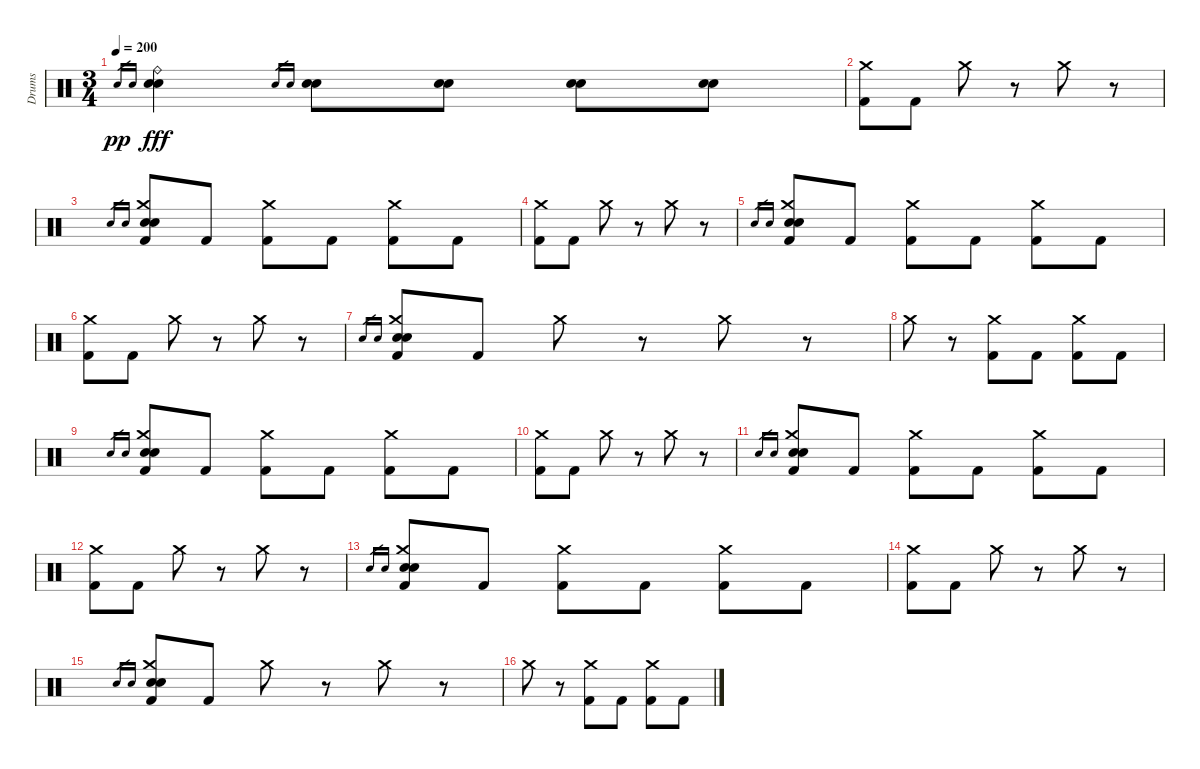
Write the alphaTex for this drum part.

\track ("Drums" "Drums") {instrument percussion}
\staff {score}
\articulation defaults
\ts (3 4)
\tempo 200
\clef neutral
\ks c "Electric Snare (hit)".16{gr dy pp} "Snare (hit) 2".16{gr}
("Ride (bell)" "Electric Snare (hit)" "Snare (hit) 2").4{dy fff} "Electric Snare (hit)".16{gr} "Snare (hit) 2".16{gr} ("Electric Snare (hit)" "Snare (hit) 2").8 ("Electric Snare (hit)" "Snare (hit) 2").8 ("Electric Snare (hit)" "Snare (hit) 2").8 ("Electric Snare (hit)" "Snare (hit) 2").8 |
("Crash medium (hit)" "Kick (hit) 2").8 "Kick (hit) 2".8 "Crash medium (hit)".8 r.8 "Crash medium (hit)".8 r.8 |
"Electric Snare (hit)".16{gr} "Snare (hit) 2".16{gr} ("Crash medium (hit)" "Electric Snare (hit)" "Snare (hit) 2" "Kick (hit) 2").8 "Kick (hit) 2".8 ("Crash medium (hit)" "Kick (hit) 2").8 "Kick (hit) 2".8 ("Crash medium (hit)" "Kick (hit) 2").8 "Kick (hit) 2".8 |
("Crash medium (hit)" "Kick (hit) 2").8 "Kick (hit) 2".8 "Crash medium (hit)".8 r.8 "Crash medium (hit)".8 r.8 |
"Electric Snare (hit)".16{gr} "Snare (hit) 2".16{gr} ("Crash medium (hit)" "Electric Snare (hit)" "Snare (hit) 2" "Kick (hit) 2").8 "Kick (hit) 2".8 ("Crash medium (hit)" "Kick (hit) 2").8 "Kick (hit) 2".8 ("Crash medium (hit)" "Kick (hit) 2").8 "Kick (hit) 2".8 |
("Crash medium (hit)" "Kick (hit) 2").8 "Kick (hit) 2".8 "Crash medium (hit)".8 r.8 "Crash medium (hit)".8 r.8 |
"Electric Snare (hit)".16{gr} "Snare (hit) 2".16{gr} ("Crash medium (hit)" "Electric Snare (hit)" "Snare (hit) 2" "Kick (hit) 2").8 "Kick (hit) 2".8 "Crash medium (hit)".8 r.8 "Crash medium (hit)".8 r.8 |
"Crash medium (hit)".8 r.8 ("Crash medium (hit)" "Kick (hit) 2").8 "Kick (hit) 2".8 ("Crash medium (hit)" "Kick (hit) 2").8 "Kick (hit) 2".8 |
"Electric Snare (hit)".16{gr} "Snare (hit) 2".16{gr} ("Crash medium (hit)" "Electric Snare (hit)" "Snare (hit) 2" "Kick (hit) 2").8 "Kick (hit) 2".8 ("Crash medium (hit)" "Kick (hit) 2").8 "Kick (hit) 2".8 ("Crash medium (hit)" "Kick (hit) 2").8 "Kick (hit) 2".8 |
("Crash medium (hit)" "Kick (hit) 2").8 "Kick (hit) 2".8 "Crash medium (hit)".8 r.8 "Crash medium (hit)".8 r.8 |
"Electric Snare (hit)".16{gr} "Snare (hit) 2".16{gr} ("Crash medium (hit)" "Electric Snare (hit)" "Snare (hit) 2" "Kick (hit) 2").8 "Kick (hit) 2".8 ("Crash medium (hit)" "Kick (hit) 2").8 "Kick (hit) 2".8 ("Crash medium (hit)" "Kick (hit) 2").8 "Kick (hit) 2".8 |
("Crash medium (hit)" "Kick (hit) 2").8 "Kick (hit) 2".8 "Crash medium (hit)".8 r.8 "Crash medium (hit)".8 r.8 |
"Electric Snare (hit)".16{gr} "Snare (hit) 2".16{gr} ("Crash medium (hit)" "Electric Snare (hit)" "Snare (hit) 2" "Kick (hit) 2").8 "Kick (hit) 2".8 ("Crash medium (hit)" "Kick (hit) 2").8 "Kick (hit) 2".8 ("Crash medium (hit)" "Kick (hit) 2").8 "Kick (hit) 2".8 |
("Crash medium (hit)" "Kick (hit) 2").8 "Kick (hit) 2".8 "Crash medium (hit)".8 r.8 "Crash medium (hit)".8 r.8 |
"Electric Snare (hit)".16{gr} "Snare (hit) 2".16{gr} ("Crash medium (hit)" "Electric Snare (hit)" "Snare (hit) 2" "Kick (hit) 2").8 "Kick (hit) 2".8 "Crash medium (hit)".8 r.8 "Crash medium (hit)".8 r.8 |
"Crash medium (hit)".8 r.8 ("Crash medium (hit)" "Kick (hit) 2").8 "Kick (hit) 2".8 ("Crash medium (hit)" "Kick (hit) 2").8 "Kick (hit) 2".8
